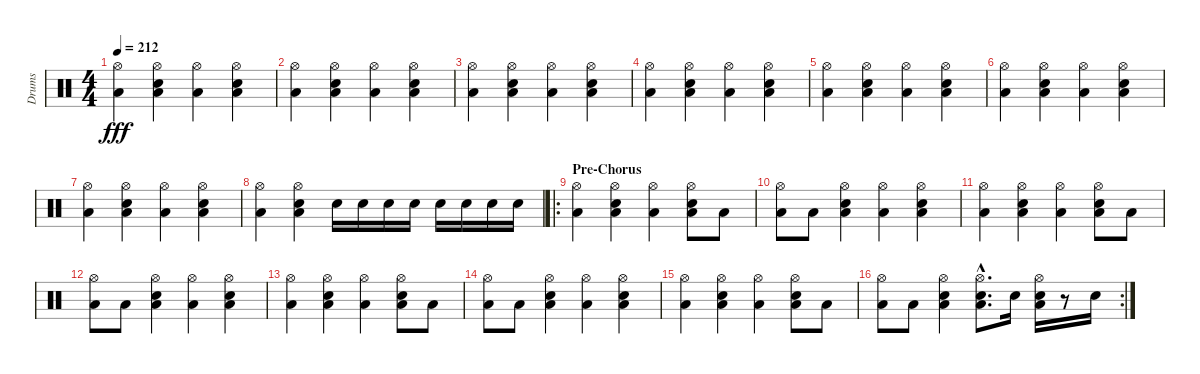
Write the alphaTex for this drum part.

\track ("Drums" "Drums") {instrument percussion}
\staff {score}
\articulation defaults
\ts (4 4)
\tempo 212
\clef neutral
\ks c
("Low Floor Tom (hit)" "Hi-Hat (open)").4{dy fff} ("Low Floor Tom (hit)" "Hi-Hat (open)" "Electric Snare (hit)").4 ("Low Floor Tom (hit)" "Hi-Hat (open)").4 ("Low Floor Tom (hit)" "Hi-Hat (open)" "Electric Snare (hit)").4 |
("Low Floor Tom (hit)" "Hi-Hat (open)").4 ("Low Floor Tom (hit)" "Hi-Hat (open)" "Electric Snare (hit)").4 ("Low Floor Tom (hit)" "Hi-Hat (open)").4 ("Low Floor Tom (hit)" "Hi-Hat (open)" "Electric Snare (hit)").4 |
("Low Floor Tom (hit)" "Hi-Hat (open)").4 ("Low Floor Tom (hit)" "Hi-Hat (open)" "Electric Snare (hit)").4 ("Low Floor Tom (hit)" "Hi-Hat (open)").4 ("Low Floor Tom (hit)" "Hi-Hat (open)" "Electric Snare (hit)").4 |
("Low Floor Tom (hit)" "Hi-Hat (open)").4 ("Low Floor Tom (hit)" "Hi-Hat (open)" "Electric Snare (hit)").4 ("Low Floor Tom (hit)" "Hi-Hat (open)").4 ("Low Floor Tom (hit)" "Hi-Hat (open)" "Electric Snare (hit)").4 |
("Low Floor Tom (hit)" "Hi-Hat (open)").4 ("Low Floor Tom (hit)" "Hi-Hat (open)" "Electric Snare (hit)").4 ("Low Floor Tom (hit)" "Hi-Hat (open)").4 ("Low Floor Tom (hit)" "Hi-Hat (open)" "Electric Snare (hit)").4 |
("Low Floor Tom (hit)" "Hi-Hat (open)").4 ("Low Floor Tom (hit)" "Hi-Hat (open)" "Electric Snare (hit)").4 ("Low Floor Tom (hit)" "Hi-Hat (open)").4 ("Low Floor Tom (hit)" "Hi-Hat (open)" "Electric Snare (hit)").4 |
("Low Floor Tom (hit)" "Hi-Hat (open)").4 ("Low Floor Tom (hit)" "Hi-Hat (open)" "Electric Snare (hit)").4 ("Low Floor Tom (hit)" "Hi-Hat (open)").4 ("Low Floor Tom (hit)" "Hi-Hat (open)" "Electric Snare (hit)").4 |
("Low Floor Tom (hit)" "Hi-Hat (open)").4 ("Low Floor Tom (hit)" "Hi-Hat (open)" "Electric Snare (hit)").4 "Electric Snare (hit)".16 "Electric Snare (hit)".16 "Electric Snare (hit)".16 "Electric Snare (hit)".16 "Electric Snare (hit)".16 "Electric Snare (hit)".16 "Electric Snare (hit)".16 "Electric Snare (hit)".16 |
\ro
\section ("" "Pre-Chorus")
("Low Floor Tom (hit)" "Hi-Hat (open)").4 ("Low Floor Tom (hit)" "Hi-Hat (open)" "Electric Snare (hit)").4 ("Low Tom (hit)" "Hi-Hat (open)").4 ("Low Floor Tom (hit)" "Hi-Hat (open)" "Electric Snare (hit)").8 "Low Tom (hit)".8 |
("Low Floor Tom (hit)" "Hi-Hat (open)").8 "Low Tom (hit)".8 ("Low Floor Tom (hit)" "Hi-Hat (open)" "Electric Snare (hit)").4 ("Low Tom (hit)" "Hi-Hat (open)").4 ("Low Floor Tom (hit)" "Hi-Hat (open)" "Electric Snare (hit)").4 |
("Low Floor Tom (hit)" "Hi-Hat (open)").4 ("Low Floor Tom (hit)" "Hi-Hat (open)" "Electric Snare (hit)").4 ("Low Tom (hit)" "Hi-Hat (open)").4 ("Low Floor Tom (hit)" "Hi-Hat (open)" "Electric Snare (hit)").8 "Low Tom (hit)".8 |
("Low Floor Tom (hit)" "Hi-Hat (open)").8 "Low Tom (hit)".8 ("Low Floor Tom (hit)" "Hi-Hat (open)" "Electric Snare (hit)").4 ("Low Tom (hit)" "Hi-Hat (open)").4 ("Low Floor Tom (hit)" "Hi-Hat (open)" "Electric Snare (hit)").4 |
("Low Floor Tom (hit)" "Hi-Hat (open)").4 ("Low Floor Tom (hit)" "Hi-Hat (open)" "Electric Snare (hit)").4 ("Low Tom (hit)" "Hi-Hat (open)").4 ("Low Floor Tom (hit)" "Hi-Hat (open)" "Electric Snare (hit)").8 "Low Tom (hit)".8 |
("Low Floor Tom (hit)" "Hi-Hat (open)").8 "Low Tom (hit)".8 ("Low Floor Tom (hit)" "Hi-Hat (open)" "Electric Snare (hit)").4 ("Low Tom (hit)" "Hi-Hat (open)").4 ("Low Floor Tom (hit)" "Hi-Hat (open)" "Electric Snare (hit)").4 |
("Low Floor Tom (hit)" "Hi-Hat (open)").4 ("Low Floor Tom (hit)" "Hi-Hat (open)" "Electric Snare (hit)").4 ("Low Tom (hit)" "Hi-Hat (open)").4 ("Low Floor Tom (hit)" "Hi-Hat (open)" "Electric Snare (hit)").8 "Low Tom (hit)".8 |
\rc 2
("Low Floor Tom (hit)" "Hi-Hat (open)").8 "Low Tom (hit)".8 ("Low Floor Tom (hit)" "Hi-Hat (open)" "Electric Snare (hit)").4 ("Low Tom (hit)"{hac} "Hi-Hat (open)"{hac} "Electric Snare (hit)"{hac}).8{d} "Electric Snare (hit)".16 ("Low Floor Tom (hit)" "Hi-Hat (open)" "Electric Snare (hit)").16 r.8 "Electric Snare (hit)".16
